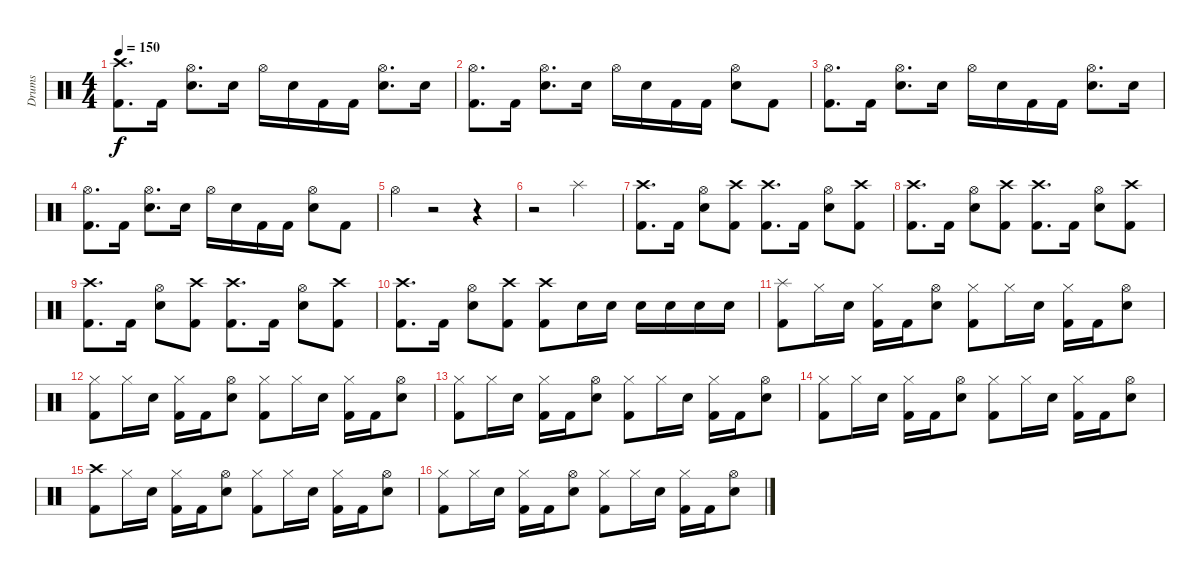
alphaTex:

\track ("Drums" "Drums") {instrument percussion}
\staff {score}
\articulation defaults
\ts (4 4)
\tempo 150
\clef neutral
\ks c
("Kick (hit) 2" "Crash high (hit)").8{d dy f} "Kick (hit) 2".16 ("Electric Snare (hit)" "Hi-Hat (open)").8{d} "Electric Snare (hit)".16 "Hi-Hat (open)".16 "Electric Snare (hit)".16 "Kick (hit) 2".16 "Kick (hit) 2".16 ("Electric Snare (hit)" "Hi-Hat (open)").8{d} "Electric Snare (hit)".16 |
("Kick (hit) 2" "Hi-Hat (open)").8{d} "Kick (hit) 2".16 ("Electric Snare (hit)" "Hi-Hat (open)").8{d} "Electric Snare (hit)".16 "Hi-Hat (open)".16 "Electric Snare (hit)".16 "Kick (hit) 2".16 "Kick (hit) 2".16 ("Electric Snare (hit)" "Hi-Hat (open)").8 "Kick (hit) 2".8 |
("Kick (hit) 2" "Hi-Hat (open)").8{d} "Kick (hit) 2".16 ("Electric Snare (hit)" "Hi-Hat (open)").8{d} "Electric Snare (hit)".16 "Hi-Hat (open)".16 "Electric Snare (hit)".16 "Kick (hit) 2".16 "Kick (hit) 2".16 ("Electric Snare (hit)" "Hi-Hat (open)").8{d} "Electric Snare (hit)".16 |
("Kick (hit) 2" "Hi-Hat (open)").8{d} "Kick (hit) 2".16 ("Electric Snare (hit)" "Hi-Hat (open)").8{d} "Electric Snare (hit)".16 "Hi-Hat (open)".16 "Electric Snare (hit)".16 "Kick (hit) 2".16 "Kick (hit) 2".16 ("Electric Snare (hit)" "Hi-Hat (open)").8 "Kick (hit) 2".8 |
"Hi-Hat (open)".4 r.2 r.4 |
r.2 "Splash (hit)".2 |
("Kick (hit) 2" "Crash high (hit)").8{d} "Kick (hit) 2".16 ("Electric Snare (hit)" "Hi-Hat (open)").8 ("Kick (hit) 2" "Crash high (hit)").8 ("Kick (hit) 2" "Crash high (hit)").8{d} "Kick (hit) 2".16 ("Electric Snare (hit)" "Hi-Hat (open)").8 ("Kick (hit) 2" "Crash high (hit)").8 |
("Kick (hit) 2" "Crash high (hit)").8{d} "Kick (hit) 2".16 ("Electric Snare (hit)" "Hi-Hat (open)").8 ("Kick (hit) 2" "Crash high (hit)").8 ("Kick (hit) 2" "Crash high (hit)").8{d} "Kick (hit) 2".16 ("Electric Snare (hit)" "Hi-Hat (open)").8 ("Kick (hit) 2" "Crash high (hit)").8 |
("Kick (hit) 2" "Crash high (hit)").8{d} "Kick (hit) 2".16 ("Electric Snare (hit)" "Hi-Hat (open)").8 ("Kick (hit) 2" "Crash high (hit)").8 ("Kick (hit) 2" "Crash high (hit)").8{d} "Kick (hit) 2".16 ("Electric Snare (hit)" "Hi-Hat (open)").8 ("Kick (hit) 2" "Crash high (hit)").8 |
("Kick (hit) 2" "Crash high (hit)").8{d} "Kick (hit) 2".16 ("Electric Snare (hit)" "Hi-Hat (open)").8 ("Kick (hit) 2" "Crash high (hit)").8 ("Kick (hit) 2" "Crash high (hit)").8 "Electric Snare (hit)".16 "Electric Snare (hit)".16 "Electric Snare (hit)".16 "Electric Snare (hit)".16 "Electric Snare (hit)".16 "Electric Snare (hit)".16 |
("Kick (hit) 2" "Splash (hit)").8 "Hi-Hat (closed)".16 "Electric Snare (hit)".16 ("Kick (hit) 2" "Hi-Hat (closed)").16 "Kick (hit) 2".16 ("Electric Snare (hit)" "Hi-Hat (open)").8 ("Kick (hit) 2" "Hi-Hat (closed)").8 "Hi-Hat (closed)".16 "Electric Snare (hit)".16 ("Kick (hit) 2" "Hi-Hat (closed)").16 "Kick (hit) 2".16 ("Electric Snare (hit)" "Hi-Hat (open)").8 |
("Kick (hit) 2" "Hi-Hat (closed)").8 "Hi-Hat (closed)".16 "Electric Snare (hit)".16 ("Kick (hit) 2" "Hi-Hat (closed)").16 "Kick (hit) 2".16 ("Electric Snare (hit)" "Hi-Hat (open)").8 ("Kick (hit) 2" "Hi-Hat (closed)").8 "Hi-Hat (closed)".16 "Electric Snare (hit)".16 ("Kick (hit) 2" "Hi-Hat (closed)").16 "Kick (hit) 2".16 ("Electric Snare (hit)" "Hi-Hat (open)").8 |
("Kick (hit) 2" "Hi-Hat (closed)").8 "Hi-Hat (closed)".16 "Electric Snare (hit)".16 ("Kick (hit) 2" "Hi-Hat (closed)").16 "Kick (hit) 2".16 ("Electric Snare (hit)" "Hi-Hat (open)").8 ("Kick (hit) 2" "Hi-Hat (closed)").8 "Hi-Hat (closed)".16 "Electric Snare (hit)".16 ("Kick (hit) 2" "Hi-Hat (closed)").16 "Kick (hit) 2".16 ("Electric Snare (hit)" "Hi-Hat (open)").8 |
("Kick (hit) 2" "Hi-Hat (closed)").8 "Hi-Hat (closed)".16 "Electric Snare (hit)".16 ("Kick (hit) 2" "Hi-Hat (closed)").16 "Kick (hit) 2".16 ("Electric Snare (hit)" "Hi-Hat (open)").8 ("Kick (hit) 2" "Hi-Hat (closed)").8 "Hi-Hat (closed)".16 "Electric Snare (hit)".16 ("Kick (hit) 2" "Hi-Hat (closed)").16 "Kick (hit) 2".16 ("Electric Snare (hit)" "Hi-Hat (open)").8 |
("Kick (hit) 2" "Crash high (hit)").8 "Hi-Hat (closed)".16 "Electric Snare (hit)".16 ("Kick (hit) 2" "Hi-Hat (closed)").16 "Kick (hit) 2".16 ("Electric Snare (hit)" "Hi-Hat (open)").8 ("Kick (hit) 2" "Hi-Hat (closed)").8 "Hi-Hat (closed)".16 "Electric Snare (hit)".16 ("Kick (hit) 2" "Hi-Hat (closed)").16 "Kick (hit) 2".16 ("Electric Snare (hit)" "Hi-Hat (open)").8 |
("Kick (hit) 2" "Hi-Hat (closed)").8 "Hi-Hat (closed)".16 "Electric Snare (hit)".16 ("Kick (hit) 2" "Hi-Hat (closed)").16 "Kick (hit) 2".16 ("Electric Snare (hit)" "Hi-Hat (open)").8 ("Kick (hit) 2" "Hi-Hat (closed)").8 "Hi-Hat (closed)".16 "Electric Snare (hit)".16 ("Kick (hit) 2" "Hi-Hat (closed)").16 "Kick (hit) 2".16 ("Electric Snare (hit)" "Hi-Hat (open)").8
